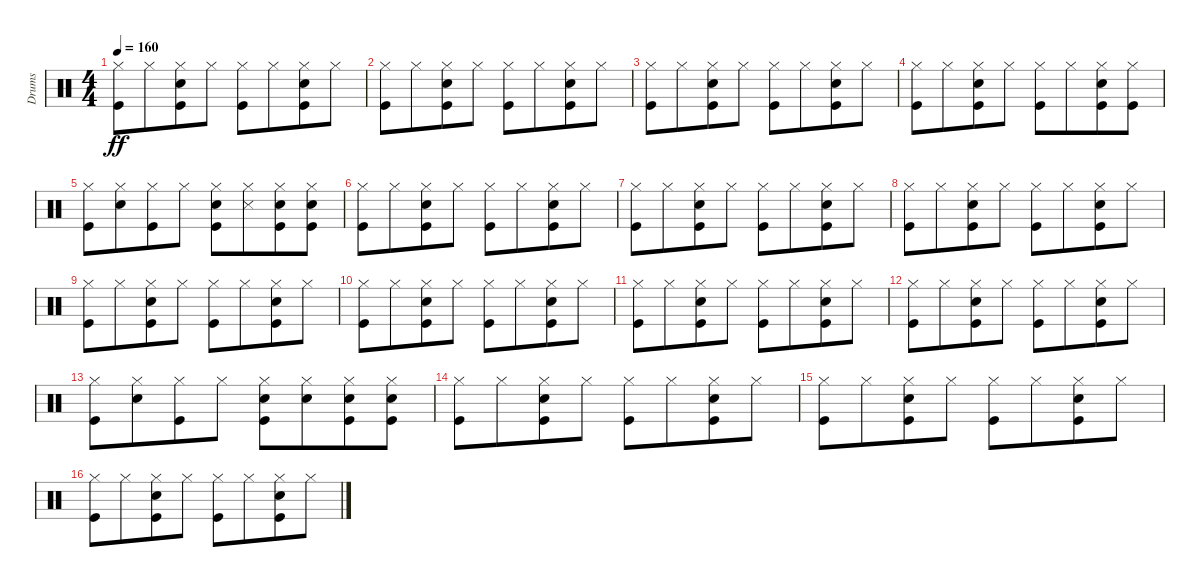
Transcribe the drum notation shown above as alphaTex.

\track ("Drums" "Drums") {instrument percussion}
\staff {score}
\articulation defaults
\ts (4 4)
\tempo 160
\clef neutral
\ks c
("Hi-Hat (closed)" "Kick (hit)").8{dy ff} "Hi-Hat (closed)".8{beam merge} ("Hi-Hat (closed)" "Snare (hit) 2" "Kick (hit)").8 "Hi-Hat (closed)".8 ("Hi-Hat (closed)" "Kick (hit)").8 "Hi-Hat (closed)".8{beam merge} ("Hi-Hat (closed)" "Snare (hit) 2" "Kick (hit)").8 "Hi-Hat (closed)".8 |
("Hi-Hat (closed)" "Kick (hit)").8 "Hi-Hat (closed)".8{beam merge} ("Hi-Hat (closed)" "Snare (hit) 2" "Kick (hit)").8 "Hi-Hat (closed)".8 ("Hi-Hat (closed)" "Kick (hit)").8 "Hi-Hat (closed)".8{beam merge} ("Hi-Hat (closed)" "Snare (hit) 2" "Kick (hit)").8 "Hi-Hat (closed)".8 |
("Hi-Hat (closed)" "Kick (hit)").8 "Hi-Hat (closed)".8{beam merge} ("Hi-Hat (closed)" "Snare (hit) 2" "Kick (hit)").8 "Hi-Hat (closed)".8 ("Hi-Hat (closed)" "Kick (hit)").8 "Hi-Hat (closed)".8{beam merge} ("Hi-Hat (closed)" "Snare (hit) 2" "Kick (hit)").8 "Hi-Hat (closed)".8 |
("Hi-Hat (closed)" "Kick (hit)").8 "Hi-Hat (closed)".8{beam merge} ("Hi-Hat (closed)" "Snare (hit) 2" "Kick (hit)").8 "Hi-Hat (closed)".8 ("Hi-Hat (closed)" "Kick (hit)").8 "Hi-Hat (closed)".8{beam merge} ("Hi-Hat (closed)" "Snare (hit) 2" "Kick (hit)").8 ("Hi-Hat (closed)" "Kick (hit)").8 |
("Hi-Hat (closed)" "Kick (hit)").8 ("Hi-Hat (closed)" "Snare (hit) 2").8{beam merge} ("Hi-Hat (closed)" "Kick (hit)").8 "Hi-Hat (closed)".8 ("Hi-Hat (closed)" "Snare (hit) 2" "Kick (hit)").8 ("Hi-Hat (closed)" "Snare (side stick) 3").8{beam merge} ("Hi-Hat (closed)" "Snare (hit) 2" "Kick (hit)").8 ("Hi-Hat (closed)" "Snare (hit) 2" "Kick (hit)").8 |
("Hi-Hat (closed)" "Kick (hit)").8 "Hi-Hat (closed)".8{beam merge} ("Hi-Hat (closed)" "Snare (hit) 2" "Kick (hit)").8 "Hi-Hat (closed)".8 ("Hi-Hat (closed)" "Kick (hit)").8 "Hi-Hat (closed)".8{beam merge} ("Hi-Hat (closed)" "Snare (hit) 2" "Kick (hit)").8 "Hi-Hat (closed)".8 |
("Hi-Hat (closed)" "Kick (hit)").8 "Hi-Hat (closed)".8{beam merge} ("Hi-Hat (closed)" "Snare (hit) 2" "Kick (hit)").8 "Hi-Hat (closed)".8 ("Hi-Hat (closed)" "Kick (hit)").8 "Hi-Hat (closed)".8{beam merge} ("Hi-Hat (closed)" "Snare (hit) 2" "Kick (hit)").8 "Hi-Hat (closed)".8 |
("Hi-Hat (closed)" "Kick (hit)").8 "Hi-Hat (closed)".8{beam merge} ("Hi-Hat (closed)" "Snare (hit) 2" "Kick (hit)").8 "Hi-Hat (closed)".8 ("Hi-Hat (closed)" "Kick (hit)").8 "Hi-Hat (closed)".8{beam merge} ("Hi-Hat (closed)" "Snare (hit) 2" "Kick (hit)").8 "Hi-Hat (closed)".8 |
("Hi-Hat (closed)" "Kick (hit)").8 "Hi-Hat (closed)".8{beam merge} ("Hi-Hat (closed)" "Snare (hit) 2" "Kick (hit)").8 "Hi-Hat (closed)".8 ("Hi-Hat (closed)" "Kick (hit)").8 "Hi-Hat (closed)".8{beam merge} ("Hi-Hat (closed)" "Snare (hit) 2" "Kick (hit)").8 "Hi-Hat (closed)".8 |
("Hi-Hat (closed)" "Kick (hit)").8 "Hi-Hat (closed)".8{beam merge} ("Hi-Hat (closed)" "Snare (hit) 2" "Kick (hit)").8 "Hi-Hat (closed)".8 ("Hi-Hat (closed)" "Kick (hit)").8 "Hi-Hat (closed)".8{beam merge} ("Hi-Hat (closed)" "Snare (hit) 2" "Kick (hit)").8 "Hi-Hat (closed)".8 |
("Hi-Hat (closed)" "Kick (hit)").8 "Hi-Hat (closed)".8{beam merge} ("Hi-Hat (closed)" "Snare (hit) 2" "Kick (hit)").8 "Hi-Hat (closed)".8 ("Hi-Hat (closed)" "Kick (hit)").8 "Hi-Hat (closed)".8{beam merge} ("Hi-Hat (closed)" "Snare (hit) 2" "Kick (hit)").8 "Hi-Hat (closed)".8 |
("Hi-Hat (closed)" "Kick (hit)").8 "Hi-Hat (closed)".8{beam merge} ("Hi-Hat (closed)" "Snare (hit) 2" "Kick (hit)").8 "Hi-Hat (closed)".8 ("Hi-Hat (closed)" "Kick (hit)").8 "Hi-Hat (closed)".8{beam merge} ("Hi-Hat (closed)" "Snare (hit) 2" "Kick (hit)").8 "Hi-Hat (closed)".8 |
("Hi-Hat (closed)" "Kick (hit)").8 ("Hi-Hat (closed)" "Snare (hit) 2").8{beam merge} ("Hi-Hat (closed)" "Kick (hit)").8 "Hi-Hat (closed)".8 ("Hi-Hat (closed)" "Snare (hit) 2" "Kick (hit)").8 ("Hi-Hat (closed)" "Snare (hit) 2").8{beam merge} ("Hi-Hat (closed)" "Snare (hit) 2" "Kick (hit)").8 ("Hi-Hat (closed)" "Snare (hit) 2" "Kick (hit)").8 |
("Hi-Hat (closed)" "Kick (hit)").8 "Hi-Hat (closed)".8{beam merge} ("Hi-Hat (closed)" "Snare (hit) 2" "Kick (hit)").8 "Hi-Hat (closed)".8 ("Hi-Hat (closed)" "Kick (hit)").8 "Hi-Hat (closed)".8{beam merge} ("Hi-Hat (closed)" "Snare (hit) 2" "Kick (hit)").8 "Hi-Hat (closed)".8 |
("Hi-Hat (closed)" "Kick (hit)").8 "Hi-Hat (closed)".8{beam merge} ("Hi-Hat (closed)" "Snare (hit) 2" "Kick (hit)").8 "Hi-Hat (closed)".8 ("Hi-Hat (closed)" "Kick (hit)").8 "Hi-Hat (closed)".8{beam merge} ("Hi-Hat (closed)" "Snare (hit) 2" "Kick (hit)").8 "Hi-Hat (closed)".8 |
("Hi-Hat (closed)" "Kick (hit)").8 "Hi-Hat (closed)".8{beam merge} ("Hi-Hat (closed)" "Snare (hit) 2" "Kick (hit)").8 "Hi-Hat (closed)".8 ("Hi-Hat (closed)" "Kick (hit)").8 "Hi-Hat (closed)".8{beam merge} ("Hi-Hat (closed)" "Snare (hit) 2" "Kick (hit)").8 "Hi-Hat (closed)".8
